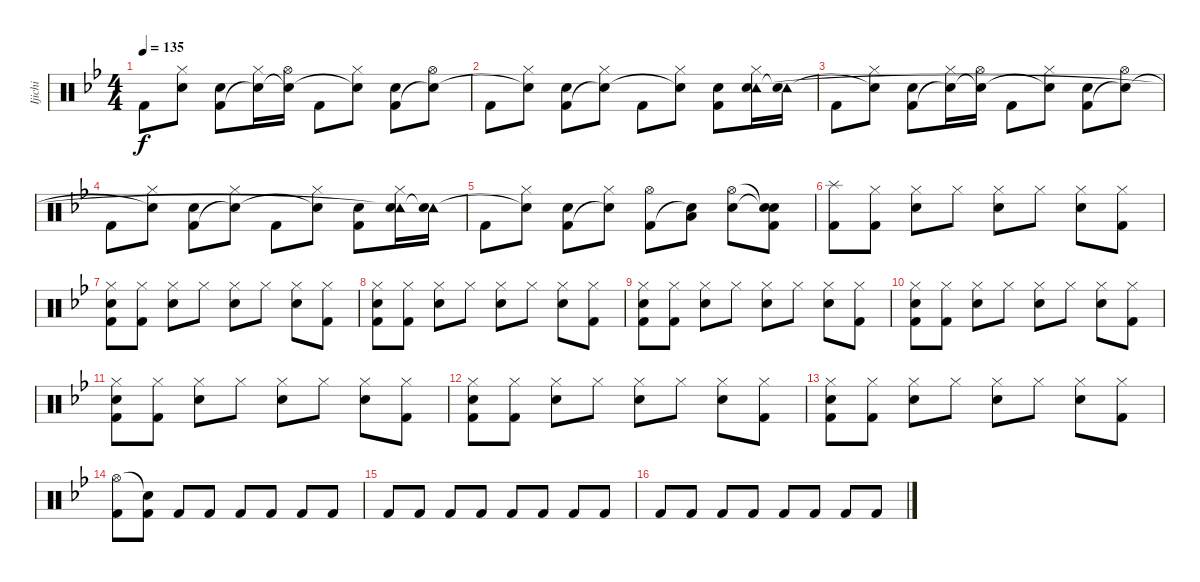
\track ("Ijichi" "Ijichi") {instrument percussion}
\staff {score}
\articulation defaults
\ts (4 4)
\tempo 135
\clef neutral
\ks bb "Kick (hit) 2".8{dy f}
("Hi-Hat (closed)" "Snare (hit)"{t}).8 ("Electric Snare (hit)" "Kick (hit) 2").8 ("Hi-Hat (closed)" "Snare (hit)"{t}).16 ("Hi-Hat (open)" "Snare (hit)"{t}).16 "Kick (hit) 2".8 ("Hi-Hat (closed)" "Snare (hit)"{t}).8 ("Electric Snare (hit)" "Kick (hit) 2").8 ("Hi-Hat (open)" "Snare (hit)"{t}).8 |
"Kick (hit) 2".8 ("Hi-Hat (closed)" "Snare (hit)"{t}).8 ("Electric Snare (hit)" "Kick (hit) 2").8 ("Hi-Hat (closed)" "Snare (hit)"{t}).8 "Kick (hit) 2".8 ("Hi-Hat (closed)" "Snare (hit)"{t}).8 ("Electric Snare (hit)" "Kick (hit) 2").8 ("Hi-Hat (closed)" "Tambourine (hit)" "Snare (hit)"{t}).16 ("Tambourine (hit)" "Snare (hit)"{t}).16 |
"Kick (hit) 2".8 ("Hi-Hat (closed)" "Snare (hit)"{t}).8 ("Electric Snare (hit)" "Kick (hit) 2").8 ("Hi-Hat (closed)" "Snare (hit)"{t}).16 ("Hi-Hat (open)" "Snare (hit)"{t}).16 "Kick (hit) 2".8 ("Hi-Hat (closed)" "Snare (hit)"{t}).8 ("Electric Snare (hit)" "Kick (hit) 2").8 ("Hi-Hat (open)" "Snare (hit)"{t}).8 |
"Kick (hit) 2".8 ("Hi-Hat (closed)" "Snare (hit)"{t}).8 ("Electric Snare (hit)" "Kick (hit) 2").8 ("Hi-Hat (closed)" "Snare (hit)"{t}).8 "Kick (hit) 2".8 ("Hi-Hat (closed)" "Snare (hit)"{t}).8 ("Electric Snare (hit)" "Kick (hit) 2").8 ("Hi-Hat (closed)" "Tambourine (hit)" "Snare (hit)"{t}).16 ("Tambourine (hit)" "Snare (hit)"{t}).16 |
"Kick (hit) 2".8 ("Hi-Hat (closed)" "Snare (hit)"{t}).8 ("Electric Snare (hit)" "Kick (hit) 2").8 ("Hi-Hat (closed)" "Snare (hit)"{t}).8 ("Hi-Hat (open)" "Kick (hit) 2").8 ("Low Floor Tom (hit)" "Snare (hit)"{t}).8 ("Hi-Hat (open)" "Electric Snare (hit)").8 ("Snare (hit)"{t} "Snare (hit)"{t} "Kick (hit) 2").8 |
("Splash (hit)" "Kick (hit) 2").8 ("Hi-Hat (closed)" "Kick (hit) 2").8 ("Hi-Hat (closed)" "Electric Snare (hit)").8 "Hi-Hat (closed)".8 ("Hi-Hat (closed)" "Electric Snare (hit)").8 "Hi-Hat (closed)".8 ("Hi-Hat (closed)" "Electric Snare (hit)").8 ("Hi-Hat (closed)" "Kick (hit) 2").8 |
("Hi-Hat (closed)" "Electric Snare (hit)" "Kick (hit) 2").8 ("Hi-Hat (closed)" "Kick (hit) 2").8 ("Hi-Hat (closed)" "Electric Snare (hit)").8 "Hi-Hat (closed)".8 ("Hi-Hat (closed)" "Electric Snare (hit)").8 "Hi-Hat (closed)".8 ("Hi-Hat (closed)" "Electric Snare (hit)").8 ("Hi-Hat (closed)" "Kick (hit) 2").8 |
("Hi-Hat (closed)" "Electric Snare (hit)" "Kick (hit) 2").8 ("Hi-Hat (closed)" "Kick (hit) 2").8 ("Hi-Hat (closed)" "Electric Snare (hit)").8 "Hi-Hat (closed)".8 ("Hi-Hat (closed)" "Electric Snare (hit)").8 "Hi-Hat (closed)".8 ("Hi-Hat (closed)" "Electric Snare (hit)").8 ("Hi-Hat (closed)" "Kick (hit) 2").8 |
("Hi-Hat (closed)" "Electric Snare (hit)" "Kick (hit) 2").8 ("Hi-Hat (closed)" "Kick (hit) 2").8 ("Hi-Hat (closed)" "Electric Snare (hit)").8 "Hi-Hat (closed)".8 ("Hi-Hat (closed)" "Electric Snare (hit)").8 "Hi-Hat (closed)".8 ("Hi-Hat (closed)" "Electric Snare (hit)").8 ("Hi-Hat (closed)" "Kick (hit) 2").8 |
("Hi-Hat (closed)" "Electric Snare (hit)" "Kick (hit) 2").8 ("Hi-Hat (closed)" "Kick (hit) 2").8 ("Hi-Hat (closed)" "Electric Snare (hit)").8 "Hi-Hat (closed)".8 ("Hi-Hat (closed)" "Electric Snare (hit)").8 "Hi-Hat (closed)".8 ("Hi-Hat (closed)" "Electric Snare (hit)").8 ("Hi-Hat (closed)" "Kick (hit) 2").8 |
("Hi-Hat (closed)" "Electric Snare (hit)" "Kick (hit) 2").8 ("Hi-Hat (closed)" "Kick (hit) 2").8 ("Hi-Hat (closed)" "Electric Snare (hit)").8 "Hi-Hat (closed)".8 ("Hi-Hat (closed)" "Electric Snare (hit)").8 "Hi-Hat (closed)".8 ("Hi-Hat (closed)" "Electric Snare (hit)").8 ("Hi-Hat (closed)" "Kick (hit) 2").8 |
("Hi-Hat (closed)" "Electric Snare (hit)" "Kick (hit) 2").8 ("Hi-Hat (closed)" "Kick (hit) 2").8 ("Hi-Hat (closed)" "Electric Snare (hit)").8 "Hi-Hat (closed)".8 ("Hi-Hat (closed)" "Electric Snare (hit)").8 "Hi-Hat (closed)".8 ("Hi-Hat (closed)" "Electric Snare (hit)").8 ("Hi-Hat (closed)" "Kick (hit) 2").8 |
("Hi-Hat (closed)" "Electric Snare (hit)" "Kick (hit) 2").8 ("Hi-Hat (closed)" "Kick (hit) 2").8 ("Hi-Hat (closed)" "Electric Snare (hit)").8 "Hi-Hat (closed)".8 ("Hi-Hat (closed)" "Electric Snare (hit)").8 "Hi-Hat (closed)".8 ("Hi-Hat (closed)" "Electric Snare (hit)").8 ("Hi-Hat (closed)" "Kick (hit) 2").8 |
("Hi-Hat (open)" "Kick (hit) 2").8 ("Snare (hit)"{t} "Kick (hit) 2").8 "Kick (hit) 2".8 "Kick (hit) 2".8 "Kick (hit) 2".8 "Kick (hit) 2".8 "Kick (hit) 2".8 "Kick (hit) 2".8 |
"Kick (hit) 2".8 "Kick (hit) 2".8 "Kick (hit) 2".8 "Kick (hit) 2".8 "Kick (hit) 2".8 "Kick (hit) 2".8 "Kick (hit) 2".8 "Kick (hit) 2".8 |
"Kick (hit) 2".8 "Kick (hit) 2".8 "Kick (hit) 2".8 "Kick (hit) 2".8 "Kick (hit) 2".8 "Kick (hit) 2".8 "Kick (hit) 2".8 "Kick (hit) 2".8
